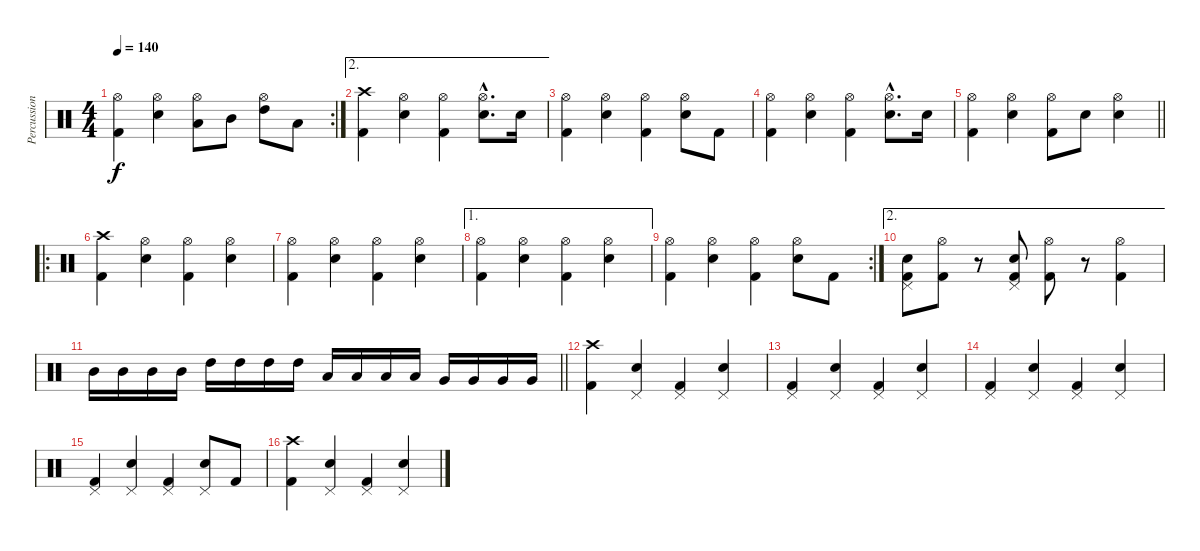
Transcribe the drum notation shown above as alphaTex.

\track ("Percussion" "Percussion") {instrument percussion}
\staff {score}
\articulation defaults
\rc 2
\ts (4 4)
\tempo 140
\clef neutral
\ks c
("Hi-Hat (open)" "Kick (hit) 2").4{dy f} ("Hi-Hat (open)" "Snare (hit) 2").4 ("Hi-Hat (open)" "Low Tom (hit)").8 "Mid Tom (hit)".8 ("Hi-Hat (open)" "High Tom (hit)").8 "Low Tom (hit)".8 |
\ae 2
("Crash high (hit)" "Kick (hit) 2").4 ("Hi-Hat (open)" "Snare (hit) 2").4 ("Hi-Hat (open)" "Kick (hit) 2").4 ("Hi-Hat (open)"{hac} "Snare (hit) 2"{hac}).8{d} "Snare (hit) 2".16 |
("Hi-Hat (open)" "Kick (hit) 2").4 ("Hi-Hat (open)" "Snare (hit) 2").4 ("Hi-Hat (open)" "Kick (hit) 2").4 ("Hi-Hat (open)" "Snare (hit) 2").8 "Kick (hit) 2".8 |
("Hi-Hat (open)" "Kick (hit) 2").4 ("Hi-Hat (open)" "Snare (hit) 2").4 ("Hi-Hat (open)" "Kick (hit) 2").4 ("Hi-Hat (open)"{hac} "Snare (hit) 2"{hac}).8{d} "Snare (hit) 2".16 |
\barLineRight lightlight
("Hi-Hat (open)" "Kick (hit) 2").4 ("Hi-Hat (open)" "Snare (hit) 2").4 ("Hi-Hat (open)" "Kick (hit) 2").8 "Snare (hit) 2".8 ("Hi-Hat (open)" "Snare (hit) 2").4 |
\ro
\section ("" "")
("Crash high (hit)" "Kick (hit) 2").4 ("Hi-Hat (open)" "Snare (hit) 2").4 ("Hi-Hat (open)" "Kick (hit) 2").4 ("Hi-Hat (open)" "Snare (hit) 2").4 |
("Hi-Hat (open)" "Kick (hit) 2").4 ("Hi-Hat (open)" "Snare (hit) 2").4 ("Hi-Hat (open)" "Kick (hit) 2").4 ("Hi-Hat (open)" "Snare (hit) 2").4 |
\ae 1
("Hi-Hat (open)" "Kick (hit) 2").4 ("Hi-Hat (open)" "Snare (hit) 2").4 ("Hi-Hat (open)" "Kick (hit) 2").4 ("Hi-Hat (open)" "Snare (hit) 2").4 |
\rc 2
("Hi-Hat (open)" "Kick (hit) 2").4 ("Hi-Hat (open)" "Snare (hit) 2").4 ("Hi-Hat (open)" "Kick (hit) 2").4 ("Hi-Hat (open)" "Snare (hit) 2").8 "Kick (hit) 2".8 |
\ae 2
("Pedal Hi-Hat (hit)" "Snare (hit) 2" "Kick (hit) 2").8 ("Hi-Hat (open)" "Kick (hit) 2").8 r.8 ("Pedal Hi-Hat (hit)" "Snare (hit) 2" "Kick (hit) 2").8 ("Hi-Hat (open)" "Kick (hit) 2").8 r.8 ("Hi-Hat (open)" "Kick (hit) 2").4 |
\barLineRight lightlight "Mid Tom (hit)".16 "Mid Tom (hit)".16 "Mid Tom (hit)".16 "Mid Tom (hit)".16 "High Tom (hit)".16 "High Tom (hit)".16 "High Tom (hit)".16 "High Tom (hit)".16 "Low Tom (hit)".16 "Low Tom (hit)".16 "Low Tom (hit)".16 "Low Tom (hit)".16 "Very Low Tom (hit)".16 "Very Low Tom (hit)".16 "Very Low Tom (hit)".16 "Very Low Tom (hit)".16
|
\section ("" "")
("Crash high (hit)" "Kick (hit) 2").4 ("Pedal Hi-Hat (hit)" "Snare (hit) 2").4 ("Pedal Hi-Hat (hit)" "Kick (hit) 2").4 ("Pedal Hi-Hat (hit)" "Snare (hit) 2").4 |
("Pedal Hi-Hat (hit)" "Kick (hit) 2").4 ("Pedal Hi-Hat (hit)" "Snare (hit) 2").4 ("Pedal Hi-Hat (hit)" "Kick (hit) 2").4 ("Pedal Hi-Hat (hit)" "Snare (hit) 2").4 |
("Pedal Hi-Hat (hit)" "Kick (hit) 2").4 ("Pedal Hi-Hat (hit)" "Snare (hit) 2").4 ("Pedal Hi-Hat (hit)" "Kick (hit) 2").4 ("Pedal Hi-Hat (hit)" "Snare (hit) 2").4 |
("Pedal Hi-Hat (hit)" "Kick (hit) 2").4 ("Pedal Hi-Hat (hit)" "Snare (hit) 2").4 ("Pedal Hi-Hat (hit)" "Kick (hit) 2").4 ("Pedal Hi-Hat (hit)" "Snare (hit) 2").8 "Kick (hit) 2".8 |
("Crash high (hit)" "Kick (hit) 2").4 ("Pedal Hi-Hat (hit)" "Snare (hit) 2").4 ("Pedal Hi-Hat (hit)" "Kick (hit) 2").4 ("Pedal Hi-Hat (hit)" "Snare (hit) 2").4
